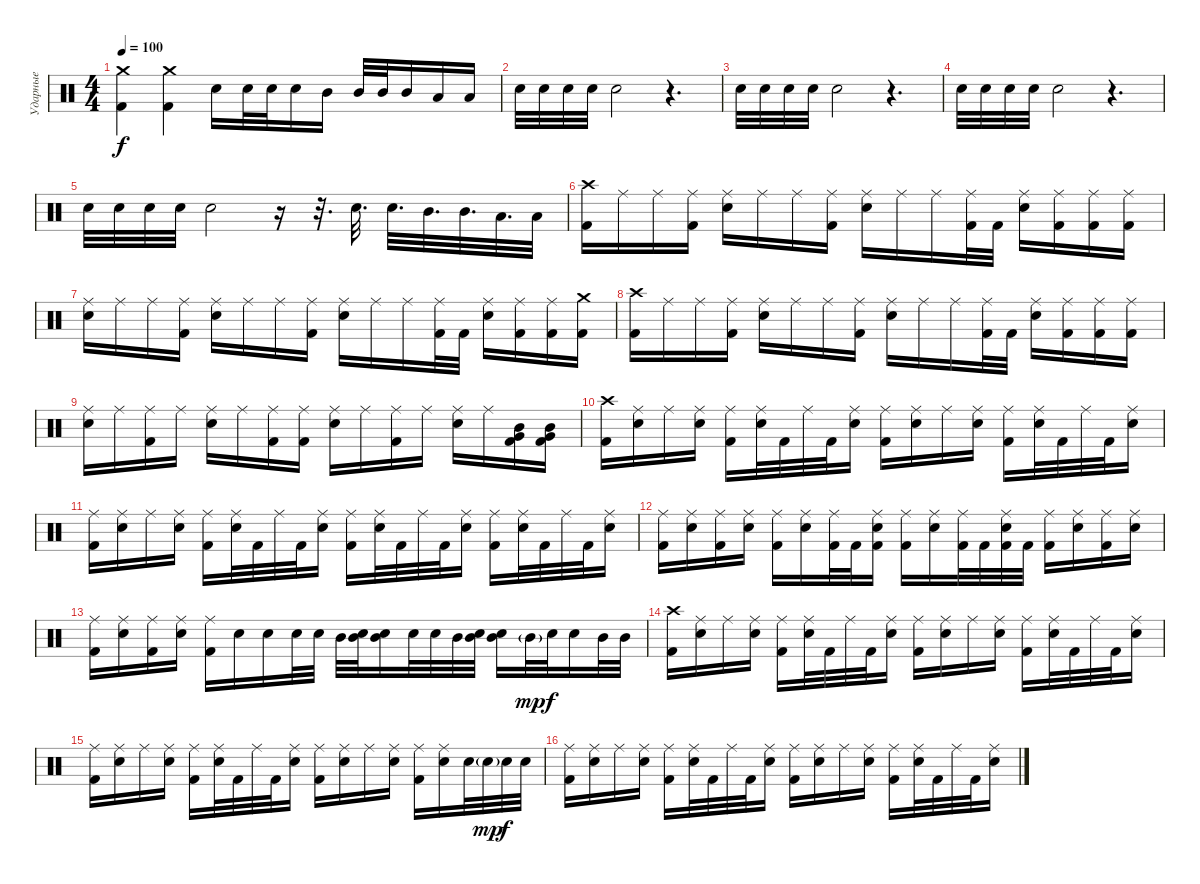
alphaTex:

\track ("Ударные" "Ударные") {instrument percussion}
\staff
\articulation defaults
\ts (4 4)
\tempo 100
\clef neutral
\ks c
("Kick (hit) 2" "Crash medium (hit)").4{dy f} ("Kick (hit) 2" "Crash medium (hit)").4 "Electric Snare (hit)".16 "Electric Snare (hit)".32 "Electric Snare (hit)".32 "Electric Snare (hit)".16 "Mid Tom (hit)".16 "Mid Tom (hit)".32 "Mid Tom (hit)".32 "Mid Tom (hit)".16 "Low Tom (hit)".16 "Low Tom (hit)".16 |
"Electric Snare (hit)".32 "Electric Snare (hit)".32 "Electric Snare (hit)".32 "Electric Snare (hit)".32 "Electric Snare (hit)".2 r.4{d} |
"Electric Snare (hit)".32 "Electric Snare (hit)".32 "Electric Snare (hit)".32 "Electric Snare (hit)".32 "Electric Snare (hit)".2 r.4{d} |
"Electric Snare (hit)".32 "Electric Snare (hit)".32 "Electric Snare (hit)".32 "Electric Snare (hit)".32 "Electric Snare (hit)".2 r.4{d} |
"Electric Snare (hit)".32 "Electric Snare (hit)".32 "Electric Snare (hit)".32 "Electric Snare (hit)".32 "Electric Snare (hit)".2 r.16 r.32{d} "Electric Snare (hit)".32{d} "Electric Snare (hit)".32{d} "Mid Tom (hit)".32{d} "Mid Tom (hit)".32{d} "Low Tom (hit)".32{d} "Low Tom (hit)".32 |
("Kick (hit) 2" "Crash high (hit)").16 "Ride (middle)".16 "Ride (middle)".16 ("Kick (hit) 2" "Ride (middle)").16 ("Electric Snare (hit)" "Ride (middle)").16 "Ride (middle)".16 "Ride (middle)".16 ("Kick (hit) 2" "Ride (middle)").16 ("Electric Snare (hit)" "Ride (middle)").16 "Ride (middle)".16 "Ride (middle)".16 ("Kick (hit) 2" "Ride (middle)").32 "Kick (hit) 2".32 ("Electric Snare (hit)" "Ride (middle)").16 ("Kick (hit) 2" "Ride (middle)").16 ("Kick (hit) 2" "Ride (middle)").16 ("Kick (hit) 2" "Ride (middle)").16 |
("Electric Snare (hit)" "Ride (middle)").16 "Ride (middle)".16 "Ride (middle)".16 ("Kick (hit) 2" "Ride (middle)").16 ("Electric Snare (hit)" "Ride (middle)").16 "Ride (middle)".16 "Ride (middle)".16 ("Kick (hit) 2" "Ride (middle)").16 ("Electric Snare (hit)" "Ride (middle)").16 "Ride (middle)".16 "Ride (middle)".16 ("Kick (hit) 2" "Ride (middle)").32 "Kick (hit) 2".32 ("Electric Snare (hit)" "Ride (middle)").16 ("Kick (hit) 2" "Ride (middle)").16 ("Kick (hit) 2" "Ride (middle)").16 ("Kick (hit) 2" "Crash medium (hit)").16 |
("Kick (hit) 2" "Crash high (hit)").16 "Ride (middle)".16 "Ride (middle)".16 ("Kick (hit) 2" "Ride (middle)").16 ("Electric Snare (hit)" "Ride (middle)").16 "Ride (middle)".16 "Ride (middle)".16 ("Kick (hit) 2" "Ride (middle)").16 ("Electric Snare (hit)" "Ride (middle)").16 "Ride (middle)".16 "Ride (middle)".16 ("Kick (hit) 2" "Ride (middle)").32 "Kick (hit) 2".32 ("Electric Snare (hit)" "Ride (middle)").16 ("Kick (hit) 2" "Ride (middle)").16 ("Kick (hit) 2" "Ride (middle)").16 ("Kick (hit) 2" "Ride (middle)").16 |
("Electric Snare (hit)" "Ride (middle)").16 "Ride (middle)".16 ("Kick (hit) 2" "Ride (middle)").16 "Ride (middle)".16 ("Electric Snare (hit)" "Ride (middle)").16 "Ride (middle)".16 ("Kick (hit) 2" "Ride (middle)").16 ("Kick (hit) 2" "Ride (middle)").16 ("Electric Snare (hit)" "Ride (middle)").16 "Ride (middle)".16 ("Kick (hit) 2" "Ride (middle)").16 "Ride (middle)".16 ("Electric Snare (hit)" "Ride (middle)").16 "Ride (middle)".16 ("Kick (hit) 2" "Mid Tom (hit)" "Very Low Tom (hit)").16 ("Kick (hit) 2" "Mid Tom (hit)" "Very Low Tom (hit)").16 |
("Kick (hit) 2" "Crash high (hit)").16 ("Electric Snare (hit)" "Ride (middle)").16 "Ride (middle)".16 ("Electric Snare (hit)" "Ride (middle)").16 ("Kick (hit) 2" "Ride (middle)").16 ("Electric Snare (hit)" "Ride (middle)").32 "Kick (hit) 2".32 "Ride (middle)".32 "Kick (hit) 2".32 ("Electric Snare (hit)" "Ride (middle)").16 ("Kick (hit) 2" "Ride (middle)").16 ("Electric Snare (hit)" "Ride (middle)").16 "Ride (middle)".16 ("Electric Snare (hit)" "Ride (middle)").16 ("Kick (hit) 2" "Ride (middle)").16 ("Electric Snare (hit)" "Ride (middle)").32 "Kick (hit) 2".32 "Ride (middle)".32 "Kick (hit) 2".32 ("Electric Snare (hit)" "Ride (middle)").16 |
("Kick (hit) 2" "Ride (middle)").16 ("Electric Snare (hit)" "Ride (middle)").16 "Ride (middle)".16 ("Electric Snare (hit)" "Ride (middle)").16 ("Kick (hit) 2" "Ride (middle)").16 ("Electric Snare (hit)" "Ride (middle)").32 "Kick (hit) 2".32 "Ride (middle)".32 "Kick (hit) 2".32 ("Electric Snare (hit)" "Ride (middle)").16 ("Kick (hit) 2" "Ride (middle)").16 ("Electric Snare (hit)" "Ride (middle)").32 "Kick (hit) 2".32 "Ride (middle)".32 "Kick (hit) 2".32 ("Electric Snare (hit)" "Ride (middle)").16 ("Kick (hit) 2" "Ride (middle)").16 ("Electric Snare (hit)" "Ride (middle)").32 "Kick (hit) 2".32 "Ride (middle)".32 "Kick (hit) 2".32 ("Electric Snare (hit)" "Ride (middle)").16 |
("Kick (hit) 2" "Ride (middle)").16 ("Electric Snare (hit)" "Ride (middle)").16 ("Kick (hit) 2" "Ride (middle)").16 ("Electric Snare (hit)" "Ride (middle)").16 ("Kick (hit) 2" "Ride (middle)").16 ("Electric Snare (hit)" "Ride (middle)").16 ("Kick (hit) 2" "Ride (middle)").32 "Kick (hit) 2".32 ("Electric Snare (hit)" "Ride (middle)" "Kick (hit) 2").16 ("Kick (hit) 2" "Ride (middle)").16 ("Electric Snare (hit)" "Ride (middle)").16 ("Kick (hit) 2" "Ride (middle)").32 "Kick (hit) 2".32 ("Electric Snare (hit)" "Ride (middle)" "Kick (hit) 2").32 "Kick (hit) 2".32 ("Kick (hit) 2" "Ride (middle)").16 ("Electric Snare (hit)" "Ride (middle)").16 ("Kick (hit) 2" "Ride (middle)").16 ("Electric Snare (hit)" "Ride (middle)").16 |
("Kick (hit) 2" "Ride (middle)").16 ("Electric Snare (hit)" "Ride (middle)").16 ("Kick (hit) 2" "Ride (middle)").16 ("Electric Snare (hit)" "Ride (middle)").16 ("Kick (hit) 2" "Ride (middle)").16 "Electric Snare (hit)".16 "Electric Snare (hit)".16 "Electric Snare (hit)".32 "Electric Snare (hit)".32 "Mid Tom (hit)".32 ("Mid Tom (hit)" "Electric Snare (hit)").32 ("Mid Tom (hit)" "Electric Snare (hit)").16 "Electric Snare (hit)".32 "Electric Snare (hit)".32 "Mid Tom (hit)".32 ("Mid Tom (hit)" "Electric Snare (hit)").32 ("Mid Tom (hit)" "Electric Snare (hit)").16 "Mid Tom (hit)"{g}.32{dy mp} "Electric Snare (hit)".32{dy f} "Electric Snare (hit)".16 "Mid Tom (hit)".32 "Mid Tom (hit)".32 |
("Kick (hit) 2" "Crash high (hit)").16 ("Electric Snare (hit)" "Ride (middle)").16 "Ride (middle)".16 ("Electric Snare (hit)" "Ride (middle)").16 ("Kick (hit) 2" "Ride (middle)").16 ("Electric Snare (hit)" "Ride (middle)").32 "Kick (hit) 2".32 "Ride (middle)".32 "Kick (hit) 2".32 ("Electric Snare (hit)" "Ride (middle)").16 ("Kick (hit) 2" "Ride (middle)").16 ("Electric Snare (hit)" "Ride (middle)").16 "Ride (middle)".16 ("Electric Snare (hit)" "Ride (middle)").16 ("Kick (hit) 2" "Ride (middle)").16 ("Electric Snare (hit)" "Ride (middle)").32 "Kick (hit) 2".32 "Ride (middle)".32 "Kick (hit) 2".32 ("Electric Snare (hit)" "Ride (middle)").16 |
("Kick (hit) 2" "Ride (middle)").16 ("Electric Snare (hit)" "Ride (middle)").16 "Ride (middle)".16 ("Electric Snare (hit)" "Ride (middle)").16 ("Kick (hit) 2" "Ride (middle)").16 ("Electric Snare (hit)" "Ride (middle)").32 "Kick (hit) 2".32 "Ride (middle)".32 "Kick (hit) 2".32 ("Electric Snare (hit)" "Ride (middle)").16 ("Kick (hit) 2" "Ride (middle)").16 ("Electric Snare (hit)" "Ride (middle)").16 "Ride (middle)".16 ("Electric Snare (hit)" "Ride (middle)").16 ("Kick (hit) 2" "Ride (middle)").16 ("Electric Snare (hit)" "Ride (middle)").16 "Electric Snare (hit)".32 "Electric Snare (hit)"{g}.32{dy mp} "Electric Snare (hit)".32{dy f} "Electric Snare (hit)".32 |
("Kick (hit) 2" "Ride (middle)").16 ("Electric Snare (hit)" "Ride (middle)").16 "Ride (middle)".16 ("Electric Snare (hit)" "Ride (middle)").16 ("Kick (hit) 2" "Ride (middle)").16 ("Electric Snare (hit)" "Ride (middle)").32 "Kick (hit) 2".32 "Ride (middle)".32 "Kick (hit) 2".32 ("Electric Snare (hit)" "Ride (middle)").16 ("Kick (hit) 2" "Ride (middle)").16 ("Electric Snare (hit)" "Ride (middle)").16 "Ride (middle)".16 ("Electric Snare (hit)" "Ride (middle)").16 ("Kick (hit) 2" "Ride (middle)").16 ("Electric Snare (hit)" "Ride (middle)").32 "Kick (hit) 2".32 "Ride (middle)".32 "Kick (hit) 2".32 ("Electric Snare (hit)" "Ride (middle)").16
